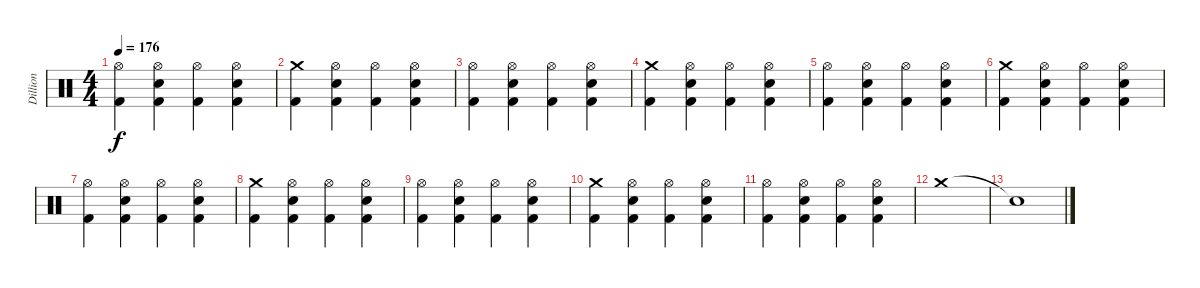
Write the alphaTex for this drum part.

\track ("Dillion" "Dillion") {instrument percussion}
\staff {score}
\articulation defaults
\ts (4 4)
\tempo 176
\clef neutral
\ks c
("Hi-Hat (open)" "Kick (hit) 2").4{dy f} ("Hi-Hat (open)" "Electric Snare (hit)" "Kick (hit) 2").4 ("Hi-Hat (open)" "Kick (hit) 2").4 ("Hi-Hat (open)" "Electric Snare (hit)" "Kick (hit) 2").4 |
("Crash medium (hit)" "Kick (hit) 2").4 ("Hi-Hat (open)" "Electric Snare (hit)" "Kick (hit) 2").4 ("Hi-Hat (open)" "Kick (hit) 2").4 ("Hi-Hat (open)" "Electric Snare (hit)" "Kick (hit) 2").4 |
("Hi-Hat (open)" "Kick (hit) 2").4 ("Hi-Hat (open)" "Electric Snare (hit)" "Kick (hit) 2").4 ("Hi-Hat (open)" "Kick (hit) 2").4 ("Hi-Hat (open)" "Electric Snare (hit)" "Kick (hit) 2").4 |
("Crash medium (hit)" "Kick (hit) 2").4 ("Hi-Hat (open)" "Electric Snare (hit)" "Kick (hit) 2").4 ("Hi-Hat (open)" "Kick (hit) 2").4 ("Hi-Hat (open)" "Electric Snare (hit)" "Kick (hit) 2").4 |
("Hi-Hat (open)" "Kick (hit) 2").4 ("Hi-Hat (open)" "Electric Snare (hit)" "Kick (hit) 2").4 ("Hi-Hat (open)" "Kick (hit) 2").4 ("Hi-Hat (open)" "Electric Snare (hit)" "Kick (hit) 2").4 |
("Crash medium (hit)" "Kick (hit) 2").4 ("Hi-Hat (open)" "Electric Snare (hit)" "Kick (hit) 2").4 ("Hi-Hat (open)" "Kick (hit) 2").4 ("Hi-Hat (open)" "Electric Snare (hit)" "Kick (hit) 2").4 |
("Hi-Hat (open)" "Kick (hit) 2").4 ("Hi-Hat (open)" "Electric Snare (hit)" "Kick (hit) 2").4 ("Hi-Hat (open)" "Kick (hit) 2").4 ("Hi-Hat (open)" "Electric Snare (hit)" "Kick (hit) 2").4 |
("Crash medium (hit)" "Kick (hit) 2").4 ("Hi-Hat (open)" "Electric Snare (hit)" "Kick (hit) 2").4 ("Hi-Hat (open)" "Kick (hit) 2").4 ("Hi-Hat (open)" "Electric Snare (hit)" "Kick (hit) 2").4 |
("Hi-Hat (open)" "Kick (hit) 2").4 ("Hi-Hat (open)" "Electric Snare (hit)" "Kick (hit) 2").4 ("Hi-Hat (open)" "Kick (hit) 2").4 ("Hi-Hat (open)" "Electric Snare (hit)" "Kick (hit) 2").4 |
("Crash medium (hit)" "Kick (hit) 2").4 ("Hi-Hat (open)" "Electric Snare (hit)" "Kick (hit) 2").4 ("Hi-Hat (open)" "Kick (hit) 2").4 ("Hi-Hat (open)" "Electric Snare (hit)" "Kick (hit) 2").4 |
("Hi-Hat (open)" "Kick (hit) 2").4 ("Hi-Hat (open)" "Electric Snare (hit)" "Kick (hit) 2").4 ("Hi-Hat (open)" "Kick (hit) 2").4 ("Hi-Hat (open)" "Electric Snare (hit)" "Kick (hit) 2").4 |
"Crash medium (hit)".1 |
"Snare (hit)"{t}.1
